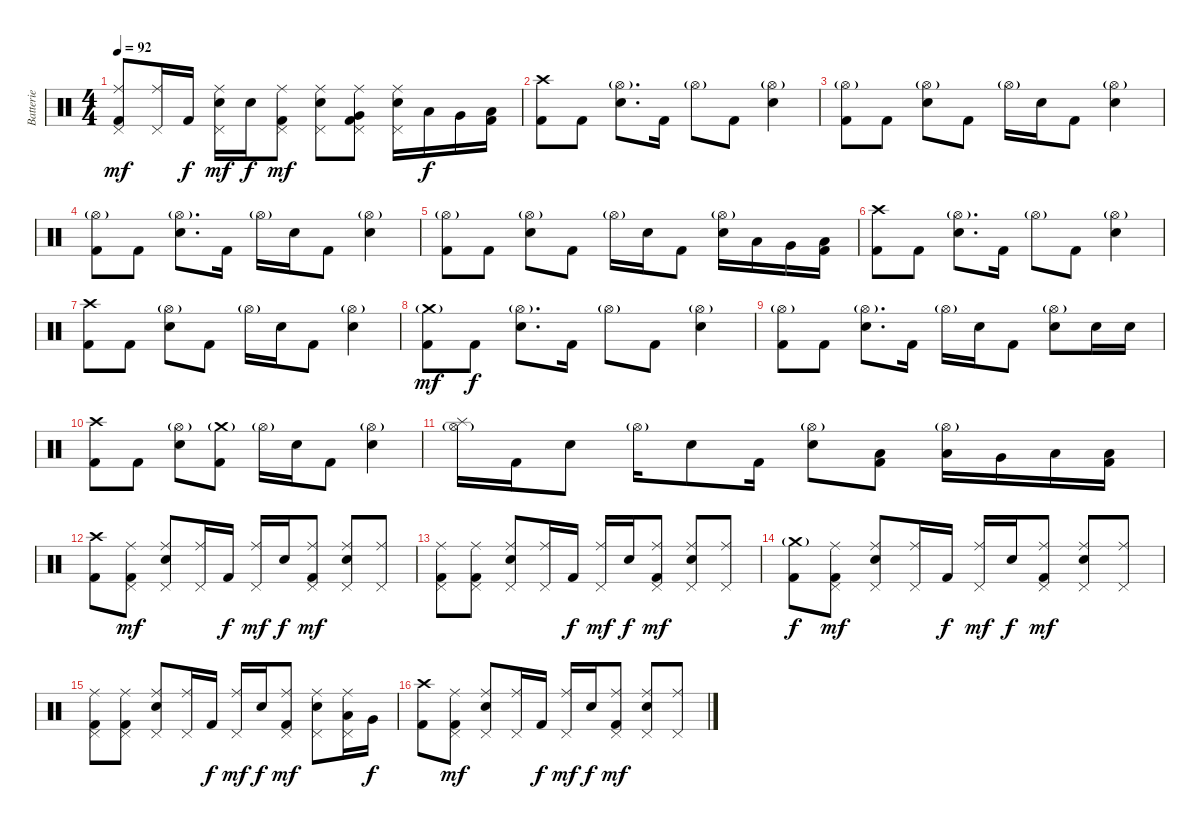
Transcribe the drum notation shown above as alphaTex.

\track ("Batterie" "Batterie") {instrument percussion}
\staff {score}
\articulation defaults
\ts (4 4)
\tempo 92
\clef neutral
\ks c
("Ride (middle)" "Pedal Hi-Hat (hit)" "Kick (hit) 2").8{dy mf} ("Ride (middle)" "Pedal Hi-Hat (hit)").16 "Kick (hit) 2".16{dy f} ("Ride (middle)" "Pedal Hi-Hat (hit)" "Electric Snare (hit)").16{dy mf} "Electric Snare (hit)".16{dy f} ("Ride (middle)" "Pedal Hi-Hat (hit)" "Kick (hit) 2").8{dy mf} ("Ride (middle)" "Pedal Hi-Hat (hit)" "Electric Snare (hit)").8 ("Ride (middle)" "Pedal Hi-Hat (hit)" "Very Low Tom (hit)" "Kick (hit) 2").8 ("Ride (middle)" "Pedal Hi-Hat (hit)" "Electric Snare (hit)").16 "Low Tom (hit)".16{dy f} "Very Low Tom (hit)".16 ("Low Floor Tom (hit)" "Kick (hit) 2").16 |
("Crash high (hit)" "Kick (hit) 2").8 "Kick (hit) 2".8 ("Hi-Hat (open)"{g} "Electric Snare (hit)").8{d} "Kick (hit) 2".16 "Hi-Hat (open)"{g}.8 "Kick (hit) 2".8 ("Hi-Hat (open)"{g} "Electric Snare (hit)").4 |
("Hi-Hat (open)"{g} "Kick (hit) 2").8 "Kick (hit) 2".8 ("Hi-Hat (open)"{g} "Electric Snare (hit)").8 "Kick (hit) 2".8 "Hi-Hat (open)"{g}.16 "Electric Snare (hit)".16 "Kick (hit) 2".8 ("Hi-Hat (open)"{g} "Electric Snare (hit)").4 |
("Hi-Hat (open)"{g} "Kick (hit) 2").8 "Kick (hit) 2".8 ("Hi-Hat (open)"{g} "Electric Snare (hit)").8{d} "Kick (hit) 2".16 "Hi-Hat (open)"{g}.16 "Electric Snare (hit)".16 "Kick (hit) 2".8 ("Hi-Hat (open)"{g} "Electric Snare (hit)").4 |
("Hi-Hat (open)"{g} "Kick (hit) 2").8 "Kick (hit) 2".8 ("Hi-Hat (open)"{g} "Electric Snare (hit)").8 "Kick (hit) 2".8 "Hi-Hat (open)"{g}.16 "Electric Snare (hit)".16 "Kick (hit) 2".8 ("Hi-Hat (open)"{g} "Electric Snare (hit)").16 "Low Tom (hit)".16 "Very Low Tom (hit)".16 ("Low Floor Tom (hit)" "Kick (hit) 2").16 |
("Crash high (hit)" "Kick (hit) 2").8 "Kick (hit) 2".8 ("Hi-Hat (open)"{g} "Electric Snare (hit)").8{d} "Kick (hit) 2".16 "Hi-Hat (open)"{g}.8 "Kick (hit) 2".8 ("Hi-Hat (open)"{g} "Electric Snare (hit)").4 |
("Crash high (hit)" "Kick (hit) 2").8 "Kick (hit) 2".8 ("Hi-Hat (open)"{g} "Electric Snare (hit)").8 "Kick (hit) 2".8 "Hi-Hat (open)"{g}.16 "Electric Snare (hit)".16 "Kick (hit) 2".8 ("Hi-Hat (open)"{g} "Electric Snare (hit)").4 |
("Crash medium (hit)"{g} "Kick (hit) 2").8{dy mf} "Kick (hit) 2".8{dy f} ("Hi-Hat (open)"{g} "Electric Snare (hit)").8{d} "Kick (hit) 2".16 "Hi-Hat (open)"{g}.8 "Kick (hit) 2".8 ("Hi-Hat (open)"{g} "Electric Snare (hit)").4 |
("Hi-Hat (open)"{g} "Kick (hit) 2").8 "Kick (hit) 2".8 ("Hi-Hat (open)"{g} "Electric Snare (hit)").8{d} "Kick (hit) 2".16 "Hi-Hat (open)"{g}.16 "Electric Snare (hit)".16 "Kick (hit) 2".8 ("Hi-Hat (open)"{g} "Electric Snare (hit)").8 "Electric Snare (hit)".16 "Electric Snare (hit)".16 |
("Crash high (hit)" "Kick (hit) 2").8 "Kick (hit) 2".8 ("Hi-Hat (open)"{g} "Electric Snare (hit)").8 ("Crash medium (hit)"{g} "Kick (hit) 2").8 "Hi-Hat (open)"{g}.16 "Electric Snare (hit)".16 "Kick (hit) 2".8 ("Hi-Hat (open)"{g} "Electric Snare (hit)").4 |
("Splash (hit)" "Hi-Hat (open)"{g}).16 "Kick (hit) 2".16 "Electric Snare (hit)".8 "Hi-Hat (open)"{g}.16 "Electric Snare (hit)".8 "Kick (hit) 2".16 ("Hi-Hat (open)"{g} "Electric Snare (hit)").8 ("Low Tom (hit)" "Kick (hit) 2").8 ("Hi-Hat (open)"{g} "Low Tom (hit)").16 "Very Low Tom (hit)".16 "Low Floor Tom (hit)".16 ("Low Floor Tom (hit)" "Kick (hit) 2").16 |
("Crash high (hit)" "Kick (hit) 2").8 ("Ride (middle)" "Pedal Hi-Hat (hit)" "Kick (hit) 2").8{dy mf} ("Ride (middle)" "Pedal Hi-Hat (hit)" "Electric Snare (hit)").8 ("Ride (middle)" "Pedal Hi-Hat (hit)").16 "Kick (hit) 2".16{dy f} ("Ride (middle)" "Pedal Hi-Hat (hit)").16{dy mf} "Electric Snare (hit)".16{dy f} ("Ride (middle)" "Pedal Hi-Hat (hit)" "Kick (hit) 2").8{dy mf} ("Ride (middle)" "Pedal Hi-Hat (hit)" "Electric Snare (hit)").8 ("Ride (middle)" "Pedal Hi-Hat (hit)").8 |
("Ride (middle)" "Pedal Hi-Hat (hit)" "Kick (hit) 2").8 ("Ride (middle)" "Pedal Hi-Hat (hit)" "Kick (hit) 2").8 ("Ride (middle)" "Pedal Hi-Hat (hit)" "Electric Snare (hit)").8 ("Ride (middle)" "Pedal Hi-Hat (hit)").16 "Kick (hit) 2".16{dy f} ("Ride (middle)" "Pedal Hi-Hat (hit)").16{dy mf} "Electric Snare (hit)".16{dy f} ("Ride (middle)" "Pedal Hi-Hat (hit)" "Kick (hit) 2").8{dy mf} ("Ride (middle)" "Pedal Hi-Hat (hit)" "Electric Snare (hit)").8 ("Ride (middle)" "Pedal Hi-Hat (hit)").8 |
("Crash medium (hit)"{g} "Kick (hit) 2").8{dy f} ("Ride (middle)" "Pedal Hi-Hat (hit)" "Kick (hit) 2").8{dy mf} ("Ride (middle)" "Pedal Hi-Hat (hit)" "Electric Snare (hit)").8 ("Ride (middle)" "Pedal Hi-Hat (hit)").16 "Kick (hit) 2".16{dy f} ("Ride (middle)" "Pedal Hi-Hat (hit)").16{dy mf} "Electric Snare (hit)".16{dy f} ("Ride (middle)" "Pedal Hi-Hat (hit)" "Kick (hit) 2").8{dy mf} ("Ride (middle)" "Pedal Hi-Hat (hit)" "Electric Snare (hit)").8 ("Ride (middle)" "Pedal Hi-Hat (hit)").8 |
("Ride (middle)" "Pedal Hi-Hat (hit)" "Kick (hit) 2").8 ("Ride (middle)" "Pedal Hi-Hat (hit)" "Kick (hit) 2").8 ("Ride (middle)" "Pedal Hi-Hat (hit)" "Electric Snare (hit)").8 ("Ride (middle)" "Pedal Hi-Hat (hit)").16 "Kick (hit) 2".16{dy f} ("Ride (middle)" "Pedal Hi-Hat (hit)").16{dy mf} "Electric Snare (hit)".16{dy f} ("Ride (middle)" "Pedal Hi-Hat (hit)" "Kick (hit) 2").8{dy mf} ("Ride (middle)" "Pedal Hi-Hat (hit)" "Electric Snare (hit)").8 ("Ride (middle)" "Pedal Hi-Hat (hit)" "Low Tom (hit)").16 "Very Low Tom (hit)".16{dy f} |
("Crash high (hit)" "Kick (hit) 2").8 ("Ride (middle)" "Pedal Hi-Hat (hit)" "Kick (hit) 2").8{dy mf} ("Ride (middle)" "Pedal Hi-Hat (hit)" "Electric Snare (hit)").8 ("Ride (middle)" "Pedal Hi-Hat (hit)").16 "Kick (hit) 2".16{dy f} ("Ride (middle)" "Pedal Hi-Hat (hit)").16{dy mf} "Electric Snare (hit)".16{dy f} ("Ride (middle)" "Pedal Hi-Hat (hit)" "Kick (hit) 2").8{dy mf} ("Ride (middle)" "Pedal Hi-Hat (hit)" "Electric Snare (hit)").8 ("Ride (middle)" "Pedal Hi-Hat (hit)").8
